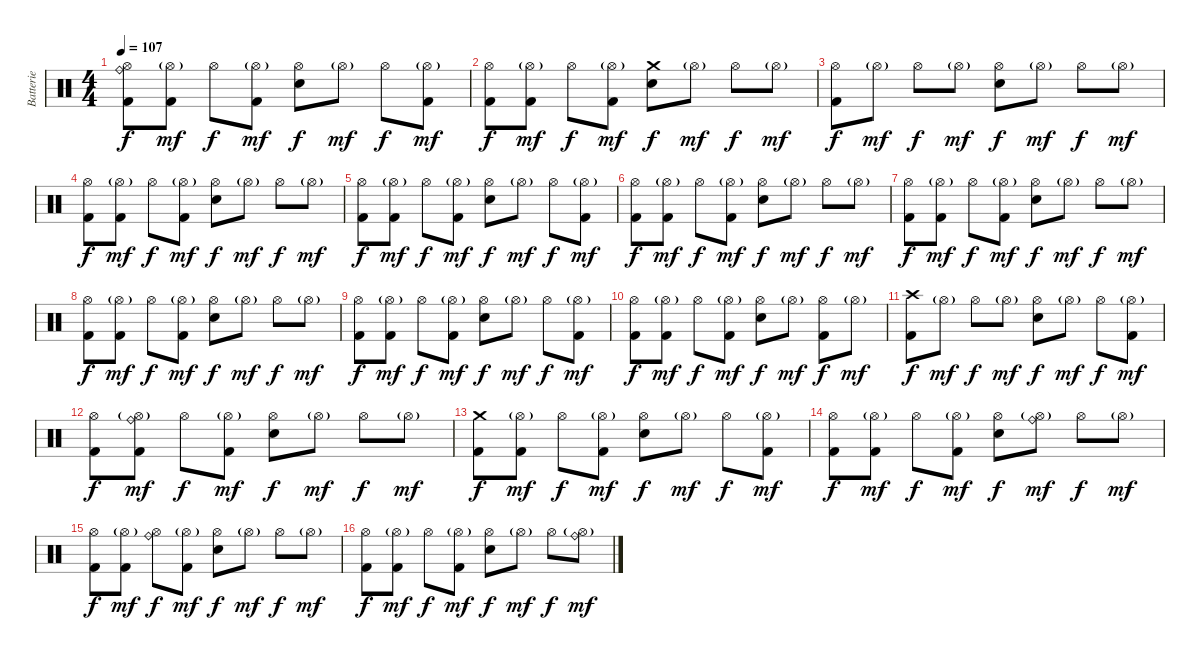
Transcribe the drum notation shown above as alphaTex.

\track ("Batterie" "Batterie") {instrument percussion}
\staff {score}
\articulation defaults
\ts (4 4)
\tempo 107
\clef neutral
\ks c
("Ride (bell)" "Hi-Hat (open)" "Kick (hit) 2").8{dy f} ("Hi-Hat (open)"{g} "Kick (hit) 2").8{dy mf} "Hi-Hat (open)".8{dy f} ("Hi-Hat (open)"{g} "Kick (hit) 2").8{dy mf} ("Hi-Hat (open)" "Electric Snare (hit)").8{dy f} "Hi-Hat (open)"{g}.8{dy mf} "Hi-Hat (open)".8{dy f} ("Hi-Hat (open)"{g} "Kick (hit) 2").8{dy mf} |
("Hi-Hat (open)" "Kick (hit) 2").8{dy f} ("Hi-Hat (open)"{g} "Kick (hit) 2").8{dy mf} "Hi-Hat (open)".8{dy f} ("Hi-Hat (open)"{g} "Kick (hit) 2").8{dy mf} ("Crash medium (hit)" "Electric Snare (hit)").8{dy f} "Hi-Hat (open)"{g}.8{dy mf} "Hi-Hat (open)".8{dy f} "Hi-Hat (open)"{g}.8{dy mf} |
("Hi-Hat (open)" "Kick (hit) 2").8{dy f} "Hi-Hat (open)"{g}.8{dy mf} "Hi-Hat (open)".8{dy f} "Hi-Hat (open)"{g}.8{dy mf} ("Hi-Hat (open)" "Electric Snare (hit)").8{dy f} "Hi-Hat (open)"{g}.8{dy mf} "Hi-Hat (open)".8{dy f} "Hi-Hat (open)"{g}.8{dy mf} |
("Hi-Hat (open)" "Kick (hit) 2").8{dy f} ("Hi-Hat (open)"{g} "Kick (hit) 2").8{dy mf} "Hi-Hat (open)".8{dy f} ("Hi-Hat (open)"{g} "Kick (hit) 2").8{dy mf} ("Hi-Hat (open)" "Electric Snare (hit)").8{dy f} "Hi-Hat (open)"{g}.8{dy mf} "Hi-Hat (open)".8{dy f} "Hi-Hat (open)"{g}.8{dy mf} |
("Hi-Hat (open)" "Kick (hit) 2").8{dy f} ("Hi-Hat (open)"{g} "Kick (hit) 2").8{dy mf} "Hi-Hat (open)".8{dy f} ("Hi-Hat (open)"{g} "Kick (hit) 2").8{dy mf} ("Hi-Hat (open)" "Electric Snare (hit)").8{dy f} "Hi-Hat (open)"{g}.8{dy mf} "Hi-Hat (open)".8{dy f} ("Hi-Hat (open)"{g} "Kick (hit) 2").8{dy mf} |
("Hi-Hat (open)" "Kick (hit) 2").8{dy f} ("Hi-Hat (open)"{g} "Kick (hit) 2").8{dy mf} "Hi-Hat (open)".8{dy f} ("Hi-Hat (open)"{g} "Kick (hit) 2").8{dy mf} ("Hi-Hat (open)" "Electric Snare (hit)").8{dy f} "Hi-Hat (open)"{g}.8{dy mf} "Hi-Hat (open)".8{dy f} "Hi-Hat (open)"{g}.8{dy mf} |
("Hi-Hat (open)" "Kick (hit) 2").8{dy f} ("Hi-Hat (open)"{g} "Kick (hit) 2").8{dy mf} "Hi-Hat (open)".8{dy f} ("Hi-Hat (open)"{g} "Kick (hit) 2").8{dy mf} ("Hi-Hat (open)" "Electric Snare (hit)").8{dy f} "Hi-Hat (open)"{g}.8{dy mf} "Hi-Hat (open)".8{dy f} "Hi-Hat (open)"{g}.8{dy mf} |
("Hi-Hat (open)" "Kick (hit) 2").8{dy f} ("Hi-Hat (open)"{g} "Kick (hit) 2").8{dy mf} "Hi-Hat (open)".8{dy f} ("Hi-Hat (open)"{g} "Kick (hit) 2").8{dy mf} ("Hi-Hat (open)" "Electric Snare (hit)").8{dy f} "Hi-Hat (open)"{g}.8{dy mf} "Hi-Hat (open)".8{dy f} "Hi-Hat (open)"{g}.8{dy mf} |
("Hi-Hat (open)" "Kick (hit) 2").8{dy f} ("Hi-Hat (open)"{g} "Kick (hit) 2").8{dy mf} "Hi-Hat (open)".8{dy f} ("Hi-Hat (open)"{g} "Kick (hit) 2").8{dy mf} ("Hi-Hat (open)" "Electric Snare (hit)").8{dy f} "Hi-Hat (open)"{g}.8{dy mf} "Hi-Hat (open)".8{dy f} ("Hi-Hat (open)"{g} "Kick (hit) 2").8{dy mf} |
("Hi-Hat (open)" "Kick (hit) 2").8{dy f} ("Hi-Hat (open)"{g} "Kick (hit) 2").8{dy mf} "Hi-Hat (open)".8{dy f} ("Hi-Hat (open)"{g} "Kick (hit) 2").8{dy mf} ("Hi-Hat (open)" "Electric Snare (hit)").8{dy f} "Hi-Hat (open)"{g}.8{dy mf} ("Hi-Hat (open)" "Kick (hit) 2").8{dy f} "Hi-Hat (open)"{g}.8{dy mf} |
("Crash high (hit)" "Kick (hit) 2").8{dy f} "Hi-Hat (open)"{g}.8{dy mf} "Hi-Hat (open)".8{dy f} "Hi-Hat (open)"{g}.8{dy mf} ("Hi-Hat (open)" "Electric Snare (hit)").8{dy f} "Hi-Hat (open)"{g}.8{dy mf} "Hi-Hat (open)".8{dy f} ("Hi-Hat (open)"{g} "Kick (hit) 2").8{dy mf} |
("Hi-Hat (open)" "Kick (hit) 2").8{dy f} ("Ride (bell)" "Hi-Hat (open)"{g} "Kick (hit) 2").8{dy mf} "Hi-Hat (open)".8{dy f} ("Hi-Hat (open)"{g} "Kick (hit) 2").8{dy mf} ("Hi-Hat (open)" "Electric Snare (hit)").8{dy f} "Hi-Hat (open)"{g}.8{dy mf} "Hi-Hat (open)".8{dy f} "Hi-Hat (open)"{g}.8{dy mf} |
("Crash medium (hit)" "Kick (hit) 2").8{dy f} ("Hi-Hat (open)"{g} "Kick (hit) 2").8{dy mf} "Hi-Hat (open)".8{dy f} ("Hi-Hat (open)"{g} "Kick (hit) 2").8{dy mf} ("Hi-Hat (open)" "Electric Snare (hit)").8{dy f} "Hi-Hat (open)"{g}.8{dy mf} "Hi-Hat (open)".8{dy f} ("Hi-Hat (open)"{g} "Kick (hit) 2").8{dy mf} |
("Hi-Hat (open)" "Kick (hit) 2").8{dy f} ("Hi-Hat (open)"{g} "Kick (hit) 2").8{dy mf} "Hi-Hat (open)".8{dy f} ("Hi-Hat (open)"{g} "Kick (hit) 2").8{dy mf} ("Hi-Hat (open)" "Electric Snare (hit)").8{dy f} ("Ride (bell)" "Hi-Hat (open)"{g}).8{dy mf} "Hi-Hat (open)".8{dy f} "Hi-Hat (open)"{g}.8{dy mf} |
("Hi-Hat (open)" "Kick (hit) 2").8{dy f} ("Hi-Hat (open)"{g} "Kick (hit) 2").8{dy mf} ("Ride (bell)" "Hi-Hat (open)").8{dy f} ("Hi-Hat (open)"{g} "Kick (hit) 2").8{dy mf} ("Hi-Hat (open)" "Electric Snare (hit)").8{dy f} "Hi-Hat (open)"{g}.8{dy mf} "Hi-Hat (open)".8{dy f} "Hi-Hat (open)"{g}.8{dy mf} |
("Hi-Hat (open)" "Kick (hit) 2").8{dy f} ("Hi-Hat (open)"{g} "Kick (hit) 2").8{dy mf} "Hi-Hat (open)".8{dy f} ("Hi-Hat (open)"{g} "Kick (hit) 2").8{dy mf} ("Hi-Hat (open)" "Electric Snare (hit)").8{dy f} "Hi-Hat (open)"{g}.8{dy mf} "Hi-Hat (open)".8{dy f} ("Ride (bell)" "Hi-Hat (open)"{g}).8{dy mf}
